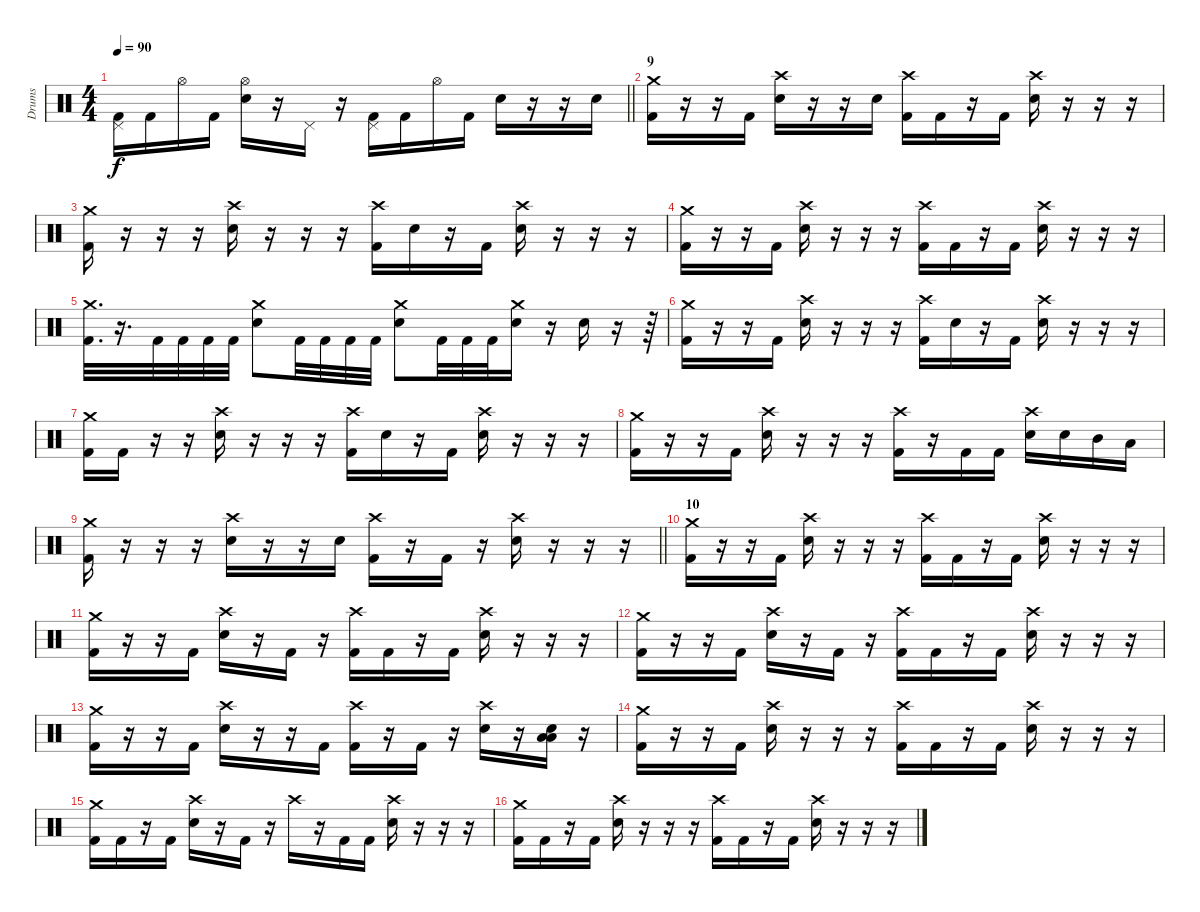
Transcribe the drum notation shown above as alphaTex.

\track ("Drums" "Drums") {instrument percussion}
\staff {score}
\articulation defaults
\ts (4 4)
\tempo 90
\clef neutral
\barLineRight lightlight
\ks c
("Pedal Hi-Hat (hit)" "Kick (hit) 2").16{dy f} "Kick (hit) 2".16 "Hi-Hat (open)".16 "Kick (hit) 2".16 ("Hi-Hat (open)" "Electric Snare (hit)").16 r.16 "Pedal Hi-Hat (hit)".16 r.16 ("Pedal Hi-Hat (hit)" "Kick (hit) 2").16 "Kick (hit) 2".16 "Hi-Hat (open)".16 "Kick (hit) 2".16 "Electric Snare (hit)".16 r.16 r.16 "Electric Snare (hit)".16 |
\section ("" "9")
("Crash medium (hit)" "Kick (hit) 2").16 r.16 r.16 "Kick (hit) 2".16 ("Crash high (hit)" "Electric Snare (hit)").16 r.16 r.16 "Electric Snare (hit)".16 ("Crash high (hit)" "Kick (hit) 2").16 "Kick (hit) 2".16 r.16 "Kick (hit) 2".16 ("Crash high (hit)" "Electric Snare (hit)").16 r.16 r.16 r.16 |
("Crash medium (hit)" "Kick (hit) 2").16 r.16 r.16 r.16 ("Crash high (hit)" "Electric Snare (hit)").16 r.16 r.16 r.16 ("Crash high (hit)" "Kick (hit) 2").16 "Electric Snare (hit)".16 r.16 "Kick (hit) 2".16 ("Crash high (hit)" "Electric Snare (hit)").16 r.16 r.16 r.16 |
("Crash medium (hit)" "Kick (hit) 2").16 r.16 r.16 "Kick (hit) 2".16 ("Crash high (hit)" "Electric Snare (hit)").16 r.16 r.16 r.16 ("Crash high (hit)" "Kick (hit) 2").16 "Kick (hit) 2".16 r.16 "Kick (hit) 2".16 ("Crash high (hit)" "Electric Snare (hit)").16 r.16 r.16 r.16 |
("Crash medium (hit)" "Kick (hit) 2").32{d} r.16{d} "Kick (hit) 2".32 "Kick (hit) 2".32 "Kick (hit) 2".32 "Kick (hit) 2".32 ("Crash medium (hit)" "Electric Snare (hit)").8 "Kick (hit) 2".32 "Kick (hit) 2".32 "Kick (hit) 2".32 "Kick (hit) 2".32 ("Crash medium (hit)" "Electric Snare (hit)").8 "Kick (hit) 2".32 "Kick (hit) 2".32 "Kick (hit) 2".32 ("Crash medium (hit)" "Electric Snare (hit)").16 r.16 "Electric Snare (hit)".16 r.16 r.64 |
("Crash medium (hit)" "Kick (hit) 2").16 r.16 r.16 "Kick (hit) 2".16 ("Crash high (hit)" "Electric Snare (hit)").16 r.16 r.16 r.16 ("Crash high (hit)" "Kick (hit) 2").16 "Electric Snare (hit)".16 r.16 "Kick (hit) 2".16 ("Crash high (hit)" "Electric Snare (hit)").16 r.16 r.16 r.16 |
("Crash medium (hit)" "Kick (hit) 2").16 "Kick (hit) 2".16 r.16 r.16 ("Crash high (hit)" "Electric Snare (hit)").16 r.16 r.16 r.16 ("Crash high (hit)" "Kick (hit) 2").16 "Electric Snare (hit)".16 r.16 "Kick (hit) 2".16 ("Crash high (hit)" "Electric Snare (hit)").16 r.16 r.16 r.16 |
("Crash medium (hit)" "Kick (hit) 2").16 r.16 r.16 "Kick (hit) 2".16 ("Crash high (hit)" "Electric Snare (hit)").16 r.16 r.16 r.16 ("Crash high (hit)" "Kick (hit) 2").16 r.16 "Kick (hit) 2".16 "Kick (hit) 2".16 ("Crash high (hit)" "Electric Snare (hit)").16 "Electric Snare (hit)".16 "Mid Tom (hit)".16 "Low Tom (hit)".16 |
\barLineRight lightlight
("Crash medium (hit)" "Kick (hit) 2").16 r.16 r.16 r.16 ("Crash high (hit)" "Electric Snare (hit)").16 r.16 r.16 "Electric Snare (hit)".16 ("Crash high (hit)" "Kick (hit) 2").16 r.16 "Kick (hit) 2".16 r.16 ("Crash high (hit)" "Electric Snare (hit)").16 r.16 r.16 r.16 |
\section ("" "10")
("Crash medium (hit)" "Kick (hit) 2").16 r.16 r.16 "Kick (hit) 2".16 ("Crash high (hit)" "Electric Snare (hit)").16 r.16 r.16 r.16 ("Crash high (hit)" "Kick (hit) 2").16 "Kick (hit) 2".16 r.16 "Kick (hit) 2".16 ("Crash high (hit)" "Electric Snare (hit)").16 r.16 r.16 r.16 |
("Crash medium (hit)" "Kick (hit) 2").16 r.16 r.16 "Kick (hit) 2".16 ("Crash high (hit)" "Electric Snare (hit)").16 r.16 "Kick (hit) 2".16 r.16 ("Crash high (hit)" "Kick (hit) 2").16 "Kick (hit) 2".16 r.16 "Kick (hit) 2".16 ("Crash high (hit)" "Electric Snare (hit)").16 r.16 r.16 r.16 |
("Crash medium (hit)" "Kick (hit) 2").16 r.16 r.16 "Kick (hit) 2".16 ("Crash high (hit)" "Electric Snare (hit)").16 r.16 "Kick (hit) 2".16 r.16 ("Crash high (hit)" "Kick (hit) 2").16 "Kick (hit) 2".16 r.16 "Kick (hit) 2".16 ("Crash high (hit)" "Electric Snare (hit)").16 r.16 r.16 r.16 |
("Crash medium (hit)" "Kick (hit) 2").16 r.16 r.16 "Kick (hit) 2".16 ("Crash high (hit)" "Electric Snare (hit)").16 r.16 r.16 "Kick (hit) 2".16 ("Crash high (hit)" "Kick (hit) 2").16 r.16 "Kick (hit) 2".16 r.16 ("Crash high (hit)" "Electric Snare (hit)").16 r.16 ("Low Tom (hit)" "Low Tom (hit)" "Electric Snare (hit)").16 r.16 |
("Crash medium (hit)" "Kick (hit) 2").16 r.16 r.16 "Kick (hit) 2".16 ("Crash high (hit)" "Electric Snare (hit)").16 r.16 r.16 r.16 ("Crash high (hit)" "Kick (hit) 2").16 "Kick (hit) 2".16 r.16 "Kick (hit) 2".16 ("Crash high (hit)" "Electric Snare (hit)").16 r.16 r.16 r.16 |
("Crash medium (hit)" "Kick (hit) 2").16 "Kick (hit) 2".16 r.16 "Kick (hit) 2".16 ("Crash high (hit)" "Electric Snare (hit)").16 r.16 "Kick (hit) 2".16 r.16 "Crash high (hit)".16 r.16 "Kick (hit) 2".16 "Kick (hit) 2".16 ("Crash high (hit)" "Electric Snare (hit)").16 r.16 r.16 r.16 |
("Crash medium (hit)" "Kick (hit) 2").16 "Kick (hit) 2".16 r.16 "Kick (hit) 2".16 ("Crash high (hit)" "Electric Snare (hit)").16 r.16 r.16 r.16 ("Crash high (hit)" "Kick (hit) 2").16 "Kick (hit) 2".16 r.16 "Kick (hit) 2".16 ("Crash high (hit)" "Electric Snare (hit)").16 r.16 r.16 r.16
